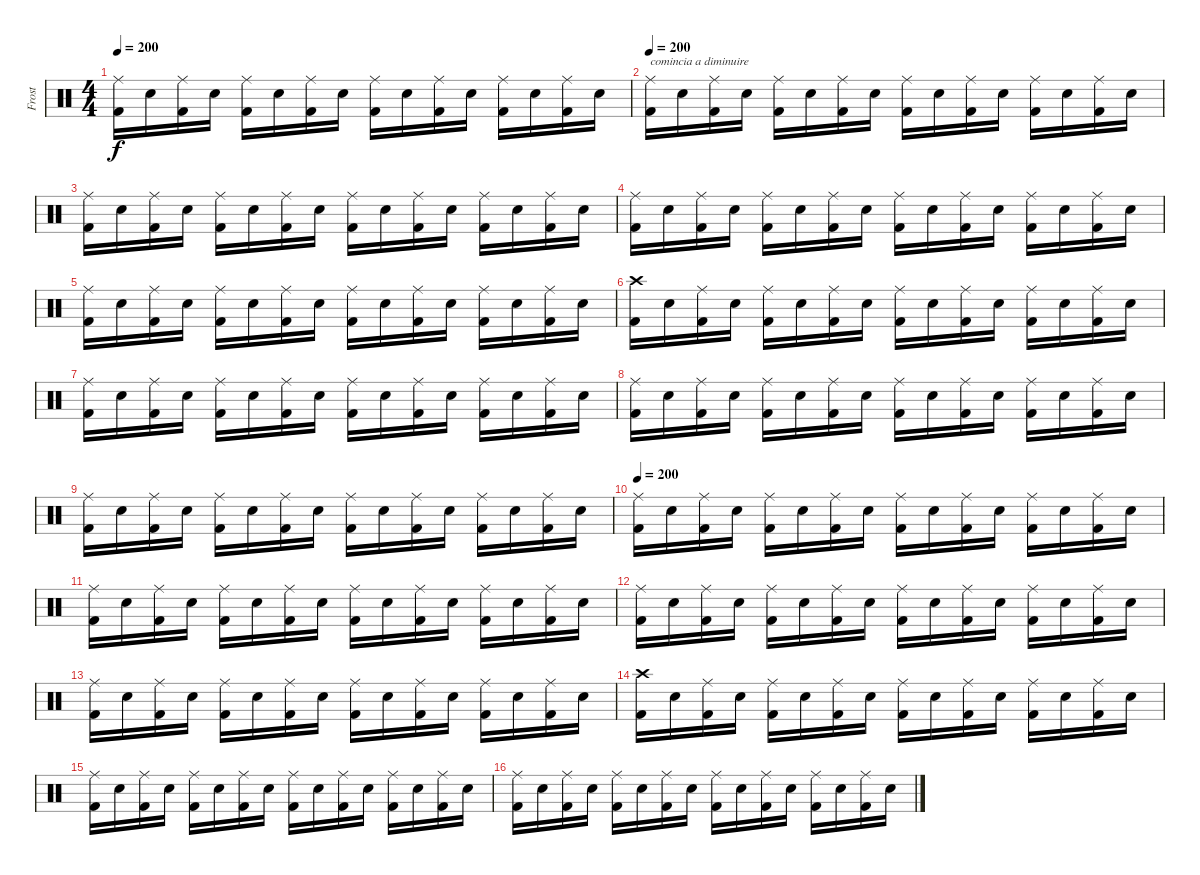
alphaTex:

\track ("Frost" "Frost") {instrument percussion}
\staff {score}
\articulation defaults
\ts (4 4)
\tempo 200
\clef neutral
\ks c
("Ride (middle)" "Kick (hit) 2").16{dy f} "Electric Snare (hit)".16 ("Ride (middle)" "Kick (hit) 2").16 "Electric Snare (hit)".16 ("Ride (middle)" "Kick (hit) 2").16 "Electric Snare (hit)".16 ("Ride (middle)" "Kick (hit) 2").16 "Electric Snare (hit)".16 ("Ride (middle)" "Kick (hit) 2").16 "Electric Snare (hit)".16 ("Ride (middle)" "Kick (hit) 2").16 "Electric Snare (hit)".16 ("Ride (middle)" "Kick (hit) 2").16 "Electric Snare (hit)".16 ("Ride (middle)" "Kick (hit) 2").16 "Electric Snare (hit)".16 |
\tempo 200
("Ride (middle)" "Kick (hit) 2").16{txt "comincia a diminuire" volume 14} "Electric Snare (hit)".16 ("Ride (middle)" "Kick (hit) 2").16 "Electric Snare (hit)".16 ("Ride (middle)" "Kick (hit) 2").16 "Electric Snare (hit)".16 ("Ride (middle)" "Kick (hit) 2").16 "Electric Snare (hit)".16 ("Ride (middle)" "Kick (hit) 2").16 "Electric Snare (hit)".16 ("Ride (middle)" "Kick (hit) 2").16 "Electric Snare (hit)".16 ("Ride (middle)" "Kick (hit) 2").16 "Electric Snare (hit)".16 ("Ride (middle)" "Kick (hit) 2").16 "Electric Snare (hit)".16 |
("Ride (middle)" "Kick (hit) 2").16 "Electric Snare (hit)".16 ("Ride (middle)" "Kick (hit) 2").16 "Electric Snare (hit)".16 ("Ride (middle)" "Kick (hit) 2").16 "Electric Snare (hit)".16 ("Ride (middle)" "Kick (hit) 2").16 "Electric Snare (hit)".16 ("Ride (middle)" "Kick (hit) 2").16 "Electric Snare (hit)".16 ("Ride (middle)" "Kick (hit) 2").16 "Electric Snare (hit)".16 ("Ride (middle)" "Kick (hit) 2").16 "Electric Snare (hit)".16 ("Ride (middle)" "Kick (hit) 2").16 "Electric Snare (hit)".16 |
("Ride (middle)" "Kick (hit) 2").16 "Electric Snare (hit)".16 ("Ride (middle)" "Kick (hit) 2").16 "Electric Snare (hit)".16 ("Ride (middle)" "Kick (hit) 2").16 "Electric Snare (hit)".16 ("Ride (middle)" "Kick (hit) 2").16 "Electric Snare (hit)".16 ("Ride (middle)" "Kick (hit) 2").16 "Electric Snare (hit)".16 ("Ride (middle)" "Kick (hit) 2").16 "Electric Snare (hit)".16 ("Ride (middle)" "Kick (hit) 2").16 "Electric Snare (hit)".16 ("Ride (middle)" "Kick (hit) 2").16 "Electric Snare (hit)".16 |
("Ride (middle)" "Kick (hit) 2").16{volume 13} "Electric Snare (hit)".16 ("Ride (middle)" "Kick (hit) 2").16 "Electric Snare (hit)".16 ("Ride (middle)" "Kick (hit) 2").16 "Electric Snare (hit)".16 ("Ride (middle)" "Kick (hit) 2").16 "Electric Snare (hit)".16 ("Ride (middle)" "Kick (hit) 2").16 "Electric Snare (hit)".16 ("Ride (middle)" "Kick (hit) 2").16 "Electric Snare (hit)".16 ("Ride (middle)" "Kick (hit) 2").16 "Electric Snare (hit)".16 ("Ride (middle)" "Kick (hit) 2").16 "Electric Snare (hit)".16 |
("Crash high (hit)" "Kick (hit) 2").16{volume 12} "Electric Snare (hit)".16 ("Ride (middle)" "Kick (hit) 2").16 "Electric Snare (hit)".16 ("Ride (middle)" "Kick (hit) 2").16 "Electric Snare (hit)".16 ("Ride (middle)" "Kick (hit) 2").16 "Electric Snare (hit)".16 ("Ride (middle)" "Kick (hit) 2").16 "Electric Snare (hit)".16 ("Ride (middle)" "Kick (hit) 2").16 "Electric Snare (hit)".16 ("Ride (middle)" "Kick (hit) 2").16 "Electric Snare (hit)".16 ("Ride (middle)" "Kick (hit) 2").16 "Electric Snare (hit)".16 |
("Ride (middle)" "Kick (hit) 2").16 "Electric Snare (hit)".16 ("Ride (middle)" "Kick (hit) 2").16 "Electric Snare (hit)".16 ("Ride (middle)" "Kick (hit) 2").16 "Electric Snare (hit)".16 ("Ride (middle)" "Kick (hit) 2").16 "Electric Snare (hit)".16 ("Ride (middle)" "Kick (hit) 2").16 "Electric Snare (hit)".16 ("Ride (middle)" "Kick (hit) 2").16 "Electric Snare (hit)".16 ("Ride (middle)" "Kick (hit) 2").16 "Electric Snare (hit)".16 ("Ride (middle)" "Kick (hit) 2").16 "Electric Snare (hit)".16 |
("Ride (middle)" "Kick (hit) 2").16 "Electric Snare (hit)".16 ("Ride (middle)" "Kick (hit) 2").16 "Electric Snare (hit)".16 ("Ride (middle)" "Kick (hit) 2").16 "Electric Snare (hit)".16 ("Ride (middle)" "Kick (hit) 2").16 "Electric Snare (hit)".16 ("Ride (middle)" "Kick (hit) 2").16 "Electric Snare (hit)".16 ("Ride (middle)" "Kick (hit) 2").16 "Electric Snare (hit)".16 ("Ride (middle)" "Kick (hit) 2").16 "Electric Snare (hit)".16 ("Ride (middle)" "Kick (hit) 2").16 "Electric Snare (hit)".16 |
("Ride (middle)" "Kick (hit) 2").16{volume 11} "Electric Snare (hit)".16 ("Ride (middle)" "Kick (hit) 2").16 "Electric Snare (hit)".16 ("Ride (middle)" "Kick (hit) 2").16 "Electric Snare (hit)".16 ("Ride (middle)" "Kick (hit) 2").16 "Electric Snare (hit)".16 ("Ride (middle)" "Kick (hit) 2").16 "Electric Snare (hit)".16 ("Ride (middle)" "Kick (hit) 2").16 "Electric Snare (hit)".16 ("Ride (middle)" "Kick (hit) 2").16 "Electric Snare (hit)".16 ("Ride (middle)" "Kick (hit) 2").16 "Electric Snare (hit)".16 |
\tempo 200
("Ride (middle)" "Kick (hit) 2").16{volume 10} "Electric Snare (hit)".16 ("Ride (middle)" "Kick (hit) 2").16 "Electric Snare (hit)".16 ("Ride (middle)" "Kick (hit) 2").16 "Electric Snare (hit)".16 ("Ride (middle)" "Kick (hit) 2").16 "Electric Snare (hit)".16 ("Ride (middle)" "Kick (hit) 2").16 "Electric Snare (hit)".16 ("Ride (middle)" "Kick (hit) 2").16 "Electric Snare (hit)".16 ("Ride (middle)" "Kick (hit) 2").16 "Electric Snare (hit)".16 ("Ride (middle)" "Kick (hit) 2").16 "Electric Snare (hit)".16 |
("Ride (middle)" "Kick (hit) 2").16{volume 9} "Electric Snare (hit)".16 ("Ride (middle)" "Kick (hit) 2").16 "Electric Snare (hit)".16 ("Ride (middle)" "Kick (hit) 2").16 "Electric Snare (hit)".16 ("Ride (middle)" "Kick (hit) 2").16 "Electric Snare (hit)".16 ("Ride (middle)" "Kick (hit) 2").16 "Electric Snare (hit)".16 ("Ride (middle)" "Kick (hit) 2").16 "Electric Snare (hit)".16 ("Ride (middle)" "Kick (hit) 2").16 "Electric Snare (hit)".16 ("Ride (middle)" "Kick (hit) 2").16 "Electric Snare (hit)".16 |
("Ride (middle)" "Kick (hit) 2").16{volume 8} "Electric Snare (hit)".16 ("Ride (middle)" "Kick (hit) 2").16 "Electric Snare (hit)".16 ("Ride (middle)" "Kick (hit) 2").16 "Electric Snare (hit)".16 ("Ride (middle)" "Kick (hit) 2").16 "Electric Snare (hit)".16 ("Ride (middle)" "Kick (hit) 2").16 "Electric Snare (hit)".16 ("Ride (middle)" "Kick (hit) 2").16 "Electric Snare (hit)".16 ("Ride (middle)" "Kick (hit) 2").16 "Electric Snare (hit)".16 ("Ride (middle)" "Kick (hit) 2").16 "Electric Snare (hit)".16 |
("Ride (middle)" "Kick (hit) 2").16{volume 7} "Electric Snare (hit)".16 ("Ride (middle)" "Kick (hit) 2").16 "Electric Snare (hit)".16 ("Ride (middle)" "Kick (hit) 2").16 "Electric Snare (hit)".16 ("Ride (middle)" "Kick (hit) 2").16 "Electric Snare (hit)".16 ("Ride (middle)" "Kick (hit) 2").16 "Electric Snare (hit)".16 ("Ride (middle)" "Kick (hit) 2").16 "Electric Snare (hit)".16 ("Ride (middle)" "Kick (hit) 2").16 "Electric Snare (hit)".16 ("Ride (middle)" "Kick (hit) 2").16 "Electric Snare (hit)".16 |
("Crash high (hit)" "Kick (hit) 2").16{volume 5} "Electric Snare (hit)".16 ("Ride (middle)" "Kick (hit) 2").16 "Electric Snare (hit)".16 ("Ride (middle)" "Kick (hit) 2").16 "Electric Snare (hit)".16 ("Ride (middle)" "Kick (hit) 2").16 "Electric Snare (hit)".16 ("Ride (middle)" "Kick (hit) 2").16 "Electric Snare (hit)".16 ("Ride (middle)" "Kick (hit) 2").16 "Electric Snare (hit)".16 ("Ride (middle)" "Kick (hit) 2").16 "Electric Snare (hit)".16 ("Ride (middle)" "Kick (hit) 2").16 "Electric Snare (hit)".16 |
("Ride (middle)" "Kick (hit) 2").16{volume 4} "Electric Snare (hit)".16 ("Ride (middle)" "Kick (hit) 2").16 "Electric Snare (hit)".16 ("Ride (middle)" "Kick (hit) 2").16 "Electric Snare (hit)".16 ("Ride (middle)" "Kick (hit) 2").16 "Electric Snare (hit)".16 ("Ride (middle)" "Kick (hit) 2").16 "Electric Snare (hit)".16 ("Ride (middle)" "Kick (hit) 2").16 "Electric Snare (hit)".16 ("Ride (middle)" "Kick (hit) 2").16 "Electric Snare (hit)".16 ("Ride (middle)" "Kick (hit) 2").16 "Electric Snare (hit)".16 |
("Ride (middle)" "Kick (hit) 2").16{volume 3} "Electric Snare (hit)".16 ("Ride (middle)" "Kick (hit) 2").16 "Electric Snare (hit)".16 ("Ride (middle)" "Kick (hit) 2").16 "Electric Snare (hit)".16 ("Ride (middle)" "Kick (hit) 2").16 "Electric Snare (hit)".16 ("Ride (middle)" "Kick (hit) 2").16 "Electric Snare (hit)".16 ("Ride (middle)" "Kick (hit) 2").16 "Electric Snare (hit)".16 ("Ride (middle)" "Kick (hit) 2").16 "Electric Snare (hit)".16 ("Ride (middle)" "Kick (hit) 2").16 "Electric Snare (hit)".16
